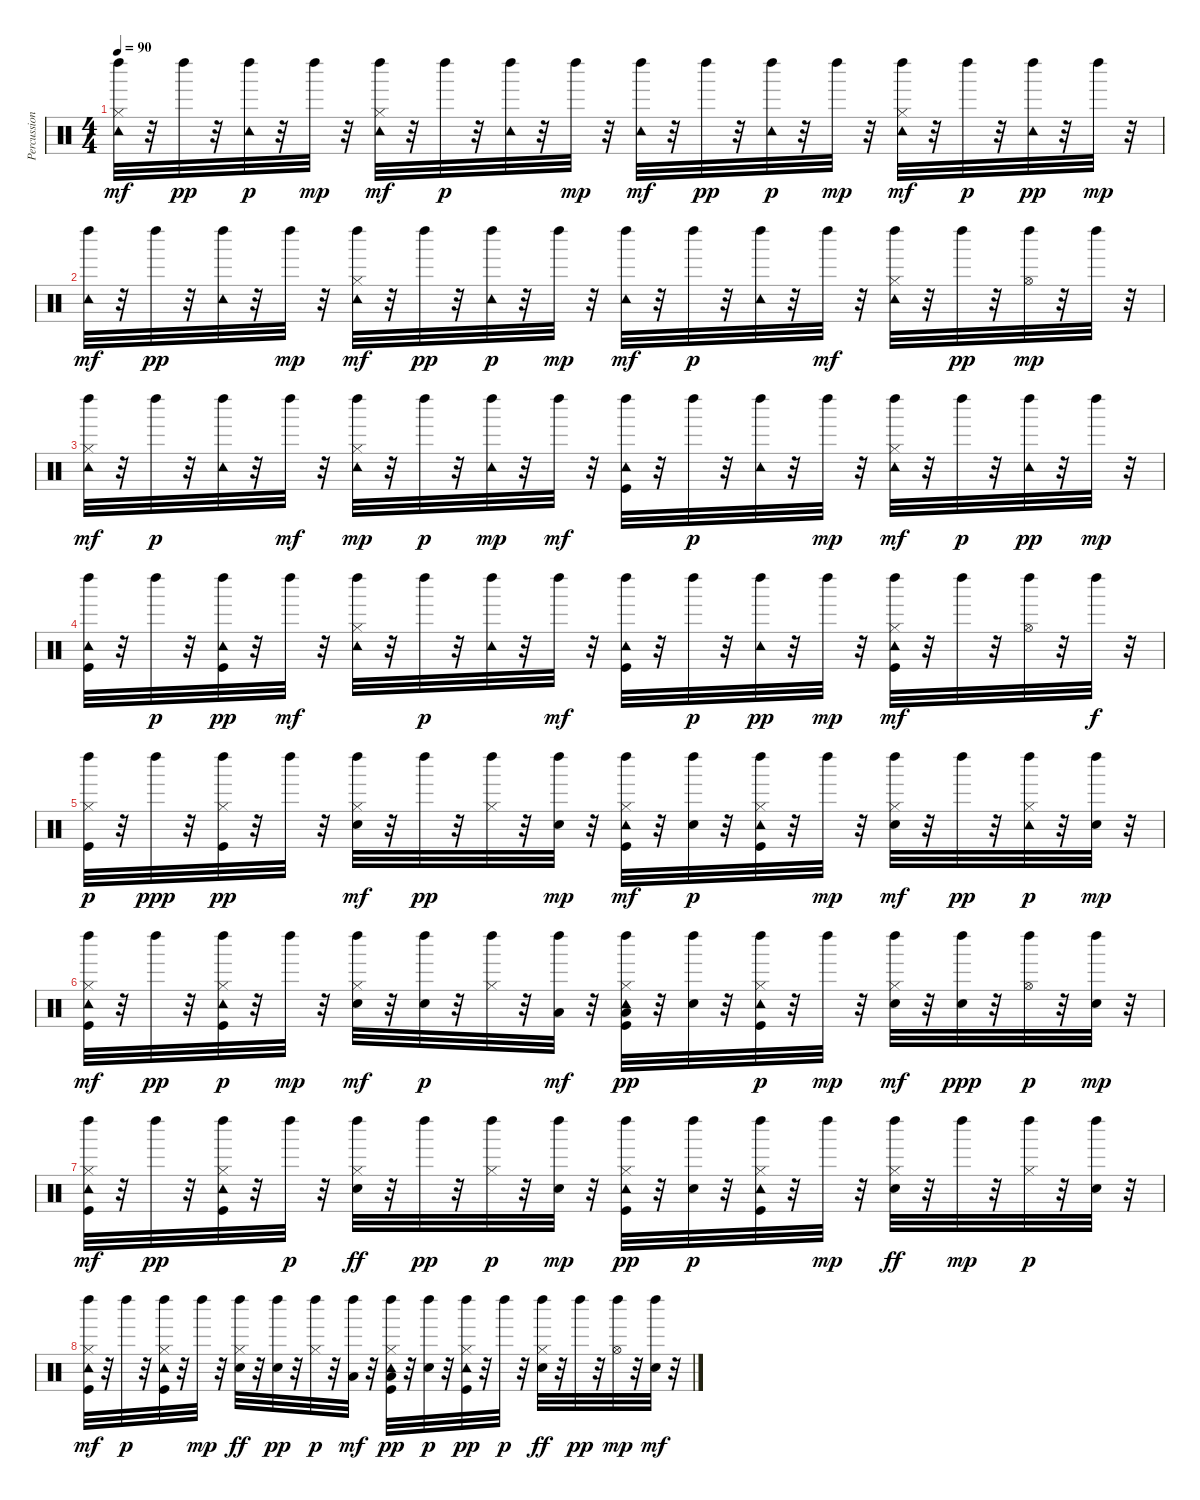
\track ("Percussions" "Percussion") {instrument percussion}
\staff {score}
\articulation defaults
\ts (4 4)
\tempo 90
\clef neutral
\ks c
("Hi-Hat (closed)" "Tambourine (hit)" "Left Maraca (hit)").32{dy mf} r.32 "Left Maraca (hit)".32{dy pp} r.32 ("Tambourine (hit)" "Left Maraca (hit)").32{dy p} r.32 "Left Maraca (hit)".32{dy mp} r.32 ("Hi-Hat (closed)" "Tambourine (hit)" "Left Maraca (hit)").32{dy mf} r.32 "Left Maraca (hit)".32{dy p} r.32 ("Tambourine (hit)" "Left Maraca (hit)").32 r.32 "Left Maraca (hit)".32{dy mp} r.32 ("Tambourine (hit)" "Left Maraca (hit)").32{dy mf} r.32 "Left Maraca (hit)".32{dy pp} r.32 ("Tambourine (hit)" "Left Maraca (hit)").32{dy p} r.32 "Left Maraca (hit)".32{dy mp} r.32 ("Hi-Hat (closed)" "Tambourine (hit)" "Left Maraca (hit)").32{dy mf} r.32 "Left Maraca (hit)".32{dy p} r.32 ("Tambourine (hit)" "Left Maraca (hit)").32{dy pp} r.32 "Left Maraca (hit)".32{dy mp} r.32 |
("Tambourine (hit)" "Left Maraca (hit)").32{dy mf} r.32 "Left Maraca (hit)".32{dy pp} r.32 ("Tambourine (hit)" "Left Maraca (hit)").32 r.32 "Left Maraca (hit)".32{dy mp} r.32 ("Hi-Hat (closed)" "Tambourine (hit)" "Left Maraca (hit)").32{dy mf} r.32 "Left Maraca (hit)".32{dy pp} r.32 ("Tambourine (hit)" "Left Maraca (hit)").32{dy p} r.32 "Left Maraca (hit)".32{dy mp} r.32 ("Tambourine (hit)" "Left Maraca (hit)").32{dy mf} r.32 "Left Maraca (hit)".32{dy p} r.32 ("Tambourine (hit)" "Left Maraca (hit)").32 r.32 "Left Maraca (hit)".32{dy mf} r.32 ("Hi-Hat (closed)" "Tambourine (hit)" "Left Maraca (hit)").32 r.32 "Left Maraca (hit)".32{dy pp} r.32 ("Hi-Hat (open)" "Left Maraca (hit)").32{dy mp} r.32 "Left Maraca (hit)".32 r.32 |
("Hi-Hat (closed)" "Tambourine (hit)" "Left Maraca (hit)").32{dy mf} r.32 "Left Maraca (hit)".32{dy p} r.32 ("Tambourine (hit)" "Left Maraca (hit)").32 r.32 "Left Maraca (hit)".32{dy mf} r.32 ("Hi-Hat (closed)" "Tambourine (hit)" "Left Maraca (hit)").32{dy mp} r.32 "Left Maraca (hit)".32{dy p} r.32 ("Tambourine (hit)" "Left Maraca (hit)").32{dy mp} r.32 "Left Maraca (hit)".32{dy mf} r.32 ("Kick (hit)" "Tambourine (hit)" "Left Maraca (hit)").32 r.32 "Left Maraca (hit)".32{dy p} r.32 ("Tambourine (hit)" "Left Maraca (hit)").32 r.32 "Left Maraca (hit)".32{dy mp} r.32 ("Hi-Hat (closed)" "Tambourine (hit)" "Left Maraca (hit)").32{dy mf} r.32 "Left Maraca (hit)".32{dy p} r.32 ("Tambourine (hit)" "Left Maraca (hit)").32{dy pp} r.32 "Left Maraca (hit)".32{dy mp} r.32 |
("Kick (hit)" "Tambourine (hit)" "Left Maraca (hit)").32 r.32 "Left Maraca (hit)".32{dy p} r.32 ("Kick (hit)" "Tambourine (hit)" "Left Maraca (hit)").32{dy pp} r.32 "Left Maraca (hit)".32{dy mf} r.32 ("Hi-Hat (closed)" "Tambourine (hit)" "Left Maraca (hit)").32 r.32 "Left Maraca (hit)".32{dy p} r.32 ("Tambourine (hit)" "Left Maraca (hit)").32 r.32 "Left Maraca (hit)".32{dy mf} r.32 ("Kick (hit)" "Tambourine (hit)" "Left Maraca (hit)").32 r.32 "Left Maraca (hit)".32{dy p} r.32 ("Tambourine (hit)" "Left Maraca (hit)").32{dy pp} r.32 "Left Maraca (hit)".32{dy mp} r.32 ("Hi-Hat (closed)" "Kick (hit)" "Tambourine (hit)" "Left Maraca (hit)").32{dy mf} r.32 "Left Maraca (hit)".32 r.32 ("Hi-Hat (open)" "Left Maraca (hit)").32 r.32 "Left Maraca (hit)".32{dy f} r.32 |
("Hi-Hat (closed)" "Kick (hit)" "Left Maraca (hit)").32{dy p} r.32 "Left Maraca (hit)".32{dy ppp} r.32 ("Hi-Hat (closed)" "Kick (hit)" "Left Maraca (hit)").32{dy pp} r.32 "Left Maraca (hit)".32 r.32 ("Hi-Hat (closed)" "Electric Snare (hit)" "Left Maraca (hit)").32{dy mf} r.32 "Left Maraca (hit)".32{dy pp} r.32 ("Hi-Hat (closed)" "Left Maraca (hit)").32 r.32 ("Electric Snare (hit)" "Left Maraca (hit)").32{dy mp} r.32 ("Hi-Hat (closed)" "Kick (hit)" "Tambourine (hit)" "Left Maraca (hit)").32{dy mf} r.32 ("Electric Snare (hit)" "Left Maraca (hit)").32{dy p} r.32 ("Hi-Hat (closed)" "Kick (hit)" "Tambourine (hit)" "Left Maraca (hit)").32 r.32 "Left Maraca (hit)".32{dy mp} r.32 ("Hi-Hat (closed)" "Electric Snare (hit)" "Left Maraca (hit)").32{dy mf} r.32 "Left Maraca (hit)".32{dy pp} r.32 ("Hi-Hat (closed)" "Tambourine (hit)" "Left Maraca (hit)").32{dy p} r.32 ("Electric Snare (hit)" "Left Maraca (hit)").32{dy mp} r.32 |
("Hi-Hat (closed)" "Kick (hit)" "Tambourine (hit)" "Left Maraca (hit)").32{dy mf} r.32 "Left Maraca (hit)".32{dy pp} r.32 ("Hi-Hat (closed)" "Kick (hit)" "Tambourine (hit)" "Left Maraca (hit)").32{dy p} r.32 "Left Maraca (hit)".32{dy mp} r.32 ("Hi-Hat (closed)" "Electric Snare (hit)" "Left Maraca (hit)").32{dy mf} r.32 ("Electric Snare (hit)" "Left Maraca (hit)").32{dy p} r.32 ("Hi-Hat (closed)" "Left Maraca (hit)").32 r.32 ("Left Maraca (hit)" "Low Tom (hit)").32{dy mf} r.32 ("Hi-Hat (closed)" "Kick (hit)" "Low Floor Tom (hit)" "Tambourine (hit)" "Left Maraca (hit)").32{dy pp} r.32 ("Electric Snare (hit)" "Left Maraca (hit)").32 r.32 ("Hi-Hat (closed)" "Kick (hit)" "Tambourine (hit)" "Left Maraca (hit)").32{dy p} r.32 "Left Maraca (hit)".32{dy mp} r.32 ("Hi-Hat (closed)" "Electric Snare (hit)" "Left Maraca (hit)").32{dy mf} r.32 ("Electric Snare (hit)" "Left Maraca (hit)").32{dy ppp} r.32 ("Hi-Hat (open)" "Left Maraca (hit)").32{dy p} r.32 ("Electric Snare (hit)" "Left Maraca (hit)").32{dy mp} r.32 |
("Hi-Hat (closed)" "Kick (hit)" "Tambourine (hit)" "Left Maraca (hit)").32{dy mf} r.32 "Left Maraca (hit)".32{dy pp} r.32 ("Hi-Hat (closed)" "Kick (hit)" "Tambourine (hit)" "Left Maraca (hit)").32 r.32 "Left Maraca (hit)".32{dy p} r.32 ("Hi-Hat (closed)" "Electric Snare (hit)" "Left Maraca (hit)").32{dy ff} r.32 "Left Maraca (hit)".32{dy pp} r.32 ("Hi-Hat (closed)" "Left Maraca (hit)").32{dy p} r.32 ("Electric Snare (hit)" "Left Maraca (hit)").32{dy mp} r.32 ("Hi-Hat (closed)" "Kick (hit)" "Tambourine (hit)" "Left Maraca (hit)").32{dy pp} r.32 ("Electric Snare (hit)" "Left Maraca (hit)").32{dy p} r.32 ("Hi-Hat (closed)" "Kick (hit)" "Tambourine (hit)" "Left Maraca (hit)").32 r.32 "Left Maraca (hit)".32{dy mp} r.32 ("Hi-Hat (closed)" "Electric Snare (hit)" "Left Maraca (hit)").32{dy ff} r.32 "Left Maraca (hit)".32{dy mp} r.32 ("Hi-Hat (closed)" "Left Maraca (hit)").32{dy p} r.32 ("Electric Snare (hit)" "Left Maraca (hit)").32 r.32 |
("Hi-Hat (closed)" "Kick (hit)" "Tambourine (hit)" "Left Maraca (hit)").32{dy mf} r.32 "Left Maraca (hit)".32{dy p} r.32 ("Hi-Hat (closed)" "Kick (hit)" "Tambourine (hit)" "Left Maraca (hit)").32 r.32 "Left Maraca (hit)".32{dy mp} r.32 ("Hi-Hat (closed)" "Electric Snare (hit)" "Left Maraca (hit)").32{dy ff} r.32 ("Electric Snare (hit)" "Left Maraca (hit)").32{dy pp} r.32 ("Hi-Hat (closed)" "Left Maraca (hit)").32{dy p} r.32 ("Left Maraca (hit)" "Low Tom (hit)").32{dy mf} r.32 ("Hi-Hat (closed)" "Kick (hit)" "Low Floor Tom (hit)" "Tambourine (hit)" "Left Maraca (hit)").32{dy pp} r.32 ("Electric Snare (hit)" "Left Maraca (hit)").32{dy p} r.32 ("Hi-Hat (closed)" "Kick (hit)" "Tambourine (hit)" "Left Maraca (hit)").32{dy pp} r.32 "Left Maraca (hit)".32{dy p} r.32 ("Hi-Hat (closed)" "Electric Snare (hit)" "Left Maraca (hit)").32{dy ff} r.32 "Left Maraca (hit)".32{dy pp} r.32 ("Hi-Hat (open)" "Left Maraca (hit)").32{dy mp} r.32 ("Electric Snare (hit)" "Left Maraca (hit)").32{dy mf} r.32
